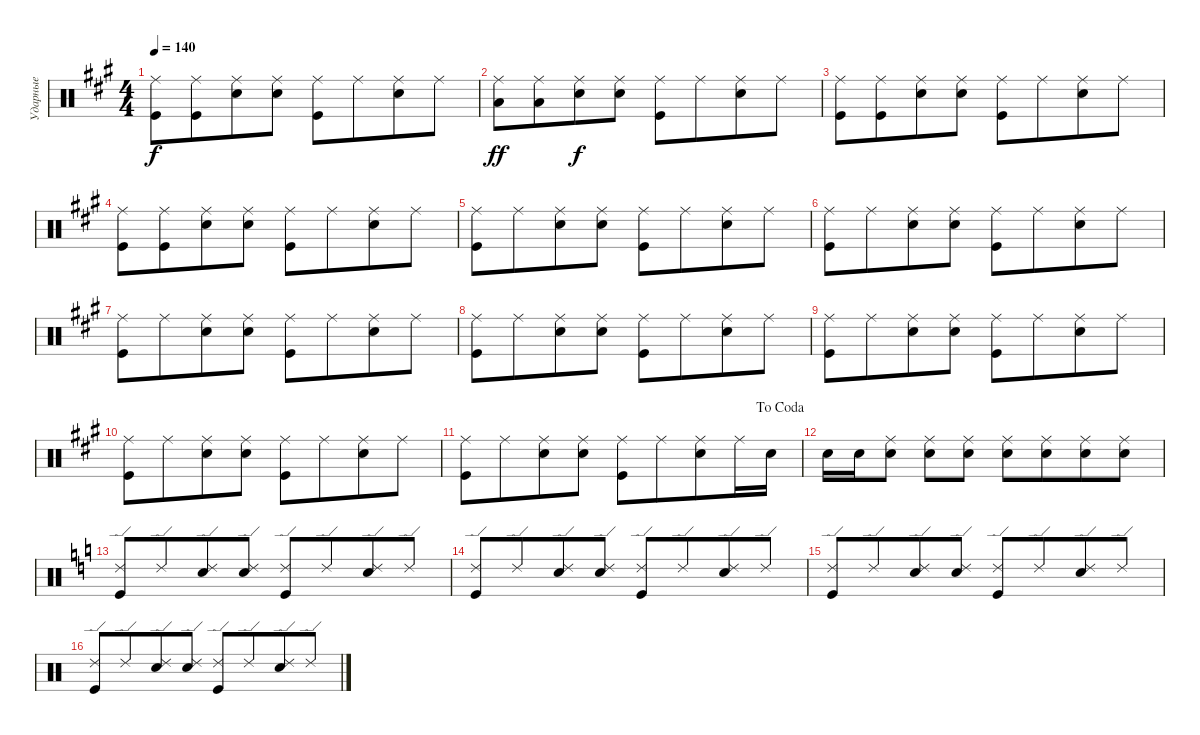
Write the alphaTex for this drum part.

\track ("Ударные" "Ударные") {instrument percussion}
\staff {score}
\articulation defaults
\ts (4 4)
\tempo 140
\clef neutral
\ks a
("Kick (hit)" "Ride (middle)").8{dy f} ("Kick (hit)" "Ride (middle)").8{beam merge} ("Snare (hit) 2" "Ride (middle)").8 ("Snare (hit) 2" "Ride (middle)").8 ("Kick (hit)" "Ride (middle)").8{beam merge} "Ride (middle)".8{beam merge} ("Snare (hit) 2" "Ride (middle)").8{beam merge} "Ride (middle)".8 |
("Low Floor Tom (hit)" "Ride (middle)").8{dy ff} ("Low Floor Tom (hit)" "Ride (middle)").8{beam merge} ("Snare (hit) 2" "Ride (middle)").8{dy f} ("Snare (hit) 2" "Ride (middle)").8 ("Kick (hit)" "Ride (middle)").8{beam merge} "Ride (middle)".8{beam merge} ("Snare (hit) 2" "Ride (middle)").8{beam merge} "Ride (middle)".8 |
("Kick (hit)" "Ride (middle)").8 ("Kick (hit)" "Ride (middle)").8{beam merge} ("Snare (hit) 2" "Ride (middle)").8 ("Snare (hit) 2" "Ride (middle)").8 ("Kick (hit)" "Ride (middle)").8{beam merge} "Ride (middle)".8{beam merge} ("Snare (hit) 2" "Ride (middle)").8{beam merge} "Ride (middle)".8 |
("Kick (hit)" "Ride (middle)").8 ("Kick (hit)" "Ride (middle)").8{beam merge} ("Snare (hit) 2" "Ride (middle)").8 ("Snare (hit) 2" "Ride (middle)").8 ("Kick (hit)" "Ride (middle)").8{beam merge} "Ride (middle)".8{beam merge} ("Snare (hit) 2" "Ride (middle)").8{beam merge} "Ride (middle)".8 |
("Kick (hit)" "Ride (middle)").8 "Ride (middle)".8{beam merge} ("Snare (hit) 2" "Ride (middle)").8 ("Ride (middle)" "Snare (hit) 2").8 ("Kick (hit)" "Ride (middle)").8 "Ride (middle)".8{beam merge} ("Snare (hit) 2" "Ride (middle)").8 "Ride (middle)".8 |
("Kick (hit)" "Ride (middle)").8 "Ride (middle)".8{beam merge} ("Snare (hit) 2" "Ride (middle)").8 ("Ride (middle)" "Snare (hit) 2").8 ("Kick (hit)" "Ride (middle)").8 "Ride (middle)".8{beam merge} ("Snare (hit) 2" "Ride (middle)").8 "Ride (middle)".8 |
("Kick (hit)" "Ride (middle)").8 "Ride (middle)".8{beam merge} ("Snare (hit) 2" "Ride (middle)").8 ("Ride (middle)" "Snare (hit) 2").8 ("Kick (hit)" "Ride (middle)").8 "Ride (middle)".8{beam merge} ("Snare (hit) 2" "Ride (middle)").8 "Ride (middle)".8 |
("Kick (hit)" "Ride (middle)").8 "Ride (middle)".8{beam merge} ("Snare (hit) 2" "Ride (middle)").8 ("Ride (middle)" "Snare (hit) 2").8 ("Kick (hit)" "Ride (middle)").8 "Ride (middle)".8{beam merge} ("Snare (hit) 2" "Ride (middle)").8 "Ride (middle)".8 |
("Kick (hit)" "Ride (middle)").8 "Ride (middle)".8{beam merge} ("Snare (hit) 2" "Ride (middle)").8 ("Ride (middle)" "Snare (hit) 2").8 ("Kick (hit)" "Ride (middle)").8 "Ride (middle)".8{beam merge} ("Snare (hit) 2" "Ride (middle)").8 "Ride (middle)".8 |
("Kick (hit)" "Ride (middle)").8 "Ride (middle)".8{beam merge} ("Snare (hit) 2" "Ride (middle)").8 ("Ride (middle)" "Snare (hit) 2").8 ("Kick (hit)" "Ride (middle)").8 "Ride (middle)".8{beam merge} ("Snare (hit) 2" "Ride (middle)").8 "Ride (middle)".8 |
\jump dacoda
("Kick (hit)" "Ride (middle)").8 "Ride (middle)".8{beam merge} ("Snare (hit) 2" "Ride (middle)").8 ("Ride (middle)" "Snare (hit) 2").8 ("Kick (hit)" "Ride (middle)").8 "Ride (middle)".8{beam merge} ("Snare (hit) 2" "Ride (middle)").8 "Ride (middle)".16 "Snare (hit) 2".16 |
"Snare (hit) 2".16 "Snare (hit) 2".16 ("Snare (hit) 2" "Ride (middle)").8 ("Snare (hit) 2" "Ride (middle)").8 ("Snare (hit) 2" "Ride (middle)").8 ("Snare (hit) 2" "Ride (middle)").8 ("Snare (hit) 2" "Ride (middle)").8{beam merge} ("Snare (hit) 2" "Ride (middle)").8 ("Snare (hit) 2" "Ride (middle)").8 |
\ks aminor
("Kick (hit)" "Ride (edge) 2").8 "Ride (edge) 2".8{beam merge} ("Snare (hit) 2" "Ride (edge) 2").8 ("Snare (hit) 2" "Ride (edge) 2").8 ("Kick (hit)" "Ride (edge) 2").8 "Ride (edge) 2".8{beam merge} ("Snare (hit) 2" "Ride (edge) 2").8 "Ride (edge) 2".8 |
("Kick (hit)" "Ride (edge) 2").8 "Ride (edge) 2".8{beam merge} ("Snare (hit) 2" "Ride (edge) 2").8 ("Snare (hit) 2" "Ride (edge) 2").8 ("Kick (hit)" "Ride (edge) 2").8 "Ride (edge) 2".8{beam merge} ("Snare (hit) 2" "Ride (edge) 2").8 "Ride (edge) 2".8 |
("Kick (hit)" "Ride (edge) 2").8 "Ride (edge) 2".8{beam merge} ("Snare (hit) 2" "Ride (edge) 2").8 ("Snare (hit) 2" "Ride (edge) 2").8 ("Kick (hit)" "Ride (edge) 2").8 "Ride (edge) 2".8{beam merge} ("Snare (hit) 2" "Ride (edge) 2").8 "Ride (edge) 2".8 |
("Kick (hit)" "Ride (edge) 2").8 "Ride (edge) 2".8{beam merge} ("Snare (hit) 2" "Ride (edge) 2").8 ("Snare (hit) 2" "Ride (edge) 2").8 ("Kick (hit)" "Ride (edge) 2").8 "Ride (edge) 2".8{beam merge} ("Snare (hit) 2" "Ride (edge) 2").8 "Ride (edge) 2".8
